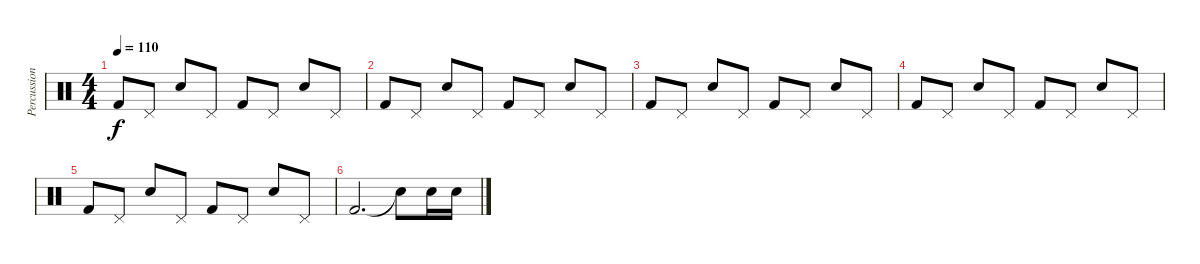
\track ("Percussion" "Percussion") {instrument percussion}
\staff {score}
\articulation defaults
\ts (4 4)
\tempo 110
\clef neutral
\ks c "Kick (hit) 2".8{dy f} "Pedal Hi-Hat (hit)".8 "Snare (hit) 2".8 "Pedal Hi-Hat (hit)".8 "Kick (hit) 2".8 "Pedal Hi-Hat (hit)".8 "Snare (hit) 2".8 "Pedal Hi-Hat (hit)".8
|
"Kick (hit) 2".8 "Pedal Hi-Hat (hit)".8 "Snare (hit) 2".8 "Pedal Hi-Hat (hit)".8 "Kick (hit) 2".8 "Pedal Hi-Hat (hit)".8 "Snare (hit) 2".8 "Pedal Hi-Hat (hit)".8 |
"Kick (hit) 2".8 "Pedal Hi-Hat (hit)".8 "Snare (hit) 2".8 "Pedal Hi-Hat (hit)".8 "Kick (hit) 2".8 "Pedal Hi-Hat (hit)".8 "Snare (hit) 2".8 "Pedal Hi-Hat (hit)".8 |
"Kick (hit) 2".8 "Pedal Hi-Hat (hit)".8 "Snare (hit) 2".8 "Pedal Hi-Hat (hit)".8 "Kick (hit) 2".8 "Pedal Hi-Hat (hit)".8 "Snare (hit) 2".8 "Pedal Hi-Hat (hit)".8 |
"Kick (hit) 2".8 "Pedal Hi-Hat (hit)".8 "Snare (hit) 2".8 "Pedal Hi-Hat (hit)".8 "Kick (hit) 2".8 "Pedal Hi-Hat (hit)".8 "Snare (hit) 2".8 "Pedal Hi-Hat (hit)".8 |
"Kick (hit) 2".2{d} "Snare (hit)"{t}.8 "Snare (hit) 2".16 "Snare (hit) 2".16
